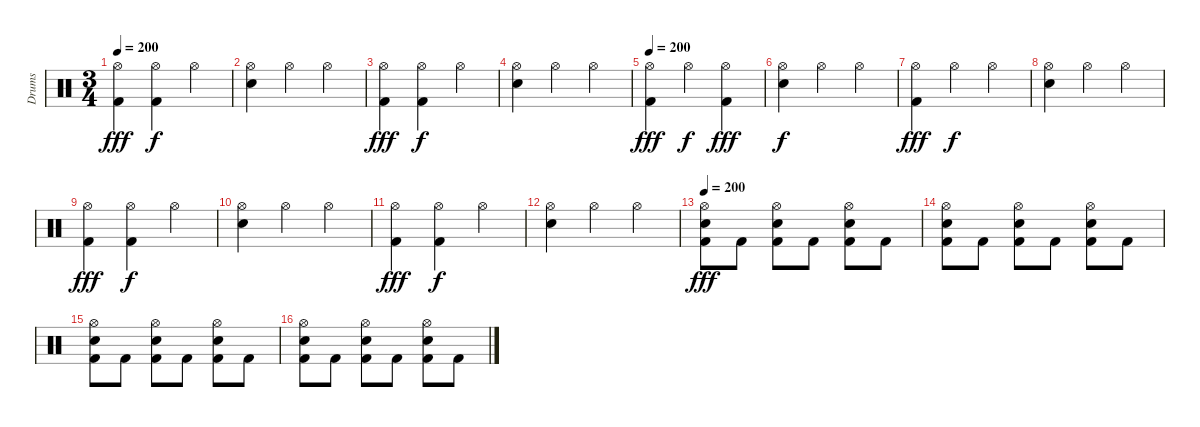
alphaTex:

\track ("Drums" "Drums") {instrument percussion}
\staff {score}
\articulation defaults
\ts (3 4)
\tempo 200
\clef neutral
\ks c
("Hi-Hat (open)" "Kick (hit) 2").4{dy fff} ("Hi-Hat (open)" "Kick (hit) 2").4{dy f} "Hi-Hat (open)".4 |
("Hi-Hat (open)" "Electric Snare (hit)").4 "Hi-Hat (open)".4 "Hi-Hat (open)".4 |
("Hi-Hat (open)" "Kick (hit) 2").4{dy fff} ("Hi-Hat (open)" "Kick (hit) 2").4{dy f} "Hi-Hat (open)".4 |
("Hi-Hat (open)" "Electric Snare (hit)").4 "Hi-Hat (open)".4 "Hi-Hat (open)".4 |
\tempo 200
("Hi-Hat (open)" "Kick (hit) 2").4{dy fff} "Hi-Hat (open)".4{dy f} ("Hi-Hat (open)" "Kick (hit) 2").4{dy fff} |
("Hi-Hat (open)" "Electric Snare (hit)").4{dy f} "Hi-Hat (open)".4 "Hi-Hat (open)".4 |
("Hi-Hat (open)" "Kick (hit) 2").4{dy fff} "Hi-Hat (open)".4{dy f} "Hi-Hat (open)".4 |
("Hi-Hat (open)" "Electric Snare (hit)").4 "Hi-Hat (open)".4 "Hi-Hat (open)".4 |
("Hi-Hat (open)" "Kick (hit) 2").4{dy fff} ("Hi-Hat (open)" "Kick (hit) 2").4{dy f} "Hi-Hat (open)".4 |
("Hi-Hat (open)" "Electric Snare (hit)").4 "Hi-Hat (open)".4 "Hi-Hat (open)".4 |
("Hi-Hat (open)" "Kick (hit) 2").4{dy fff} ("Hi-Hat (open)" "Kick (hit) 2").4{dy f} "Hi-Hat (open)".4 |
("Hi-Hat (open)" "Electric Snare (hit)").4 "Hi-Hat (open)".4 "Hi-Hat (open)".4 |
\tempo 200
("Hi-Hat (open)" "Electric Snare (hit)" "Kick (hit) 2").8{dy fff} "Kick (hit) 2".8 ("Hi-Hat (open)" "Electric Snare (hit)" "Kick (hit) 2").8 "Kick (hit) 2".8 ("Hi-Hat (open)" "Electric Snare (hit)" "Kick (hit) 2").8 "Kick (hit) 2".8 |
("Hi-Hat (open)" "Electric Snare (hit)" "Kick (hit) 2").8 "Kick (hit) 2".8 ("Hi-Hat (open)" "Electric Snare (hit)" "Kick (hit) 2").8 "Kick (hit) 2".8 ("Hi-Hat (open)" "Electric Snare (hit)" "Kick (hit) 2").8 "Kick (hit) 2".8 |
("Hi-Hat (open)" "Electric Snare (hit)" "Kick (hit) 2").8 "Kick (hit) 2".8 ("Hi-Hat (open)" "Electric Snare (hit)" "Kick (hit) 2").8 "Kick (hit) 2".8 ("Hi-Hat (open)" "Electric Snare (hit)" "Kick (hit) 2").8 "Kick (hit) 2".8 |
("Hi-Hat (open)" "Electric Snare (hit)" "Kick (hit) 2").8 "Kick (hit) 2".8 ("Hi-Hat (open)" "Electric Snare (hit)" "Kick (hit) 2").8 "Kick (hit) 2".8 ("Hi-Hat (open)" "Electric Snare (hit)" "Kick (hit) 2").8 "Kick (hit) 2".8
